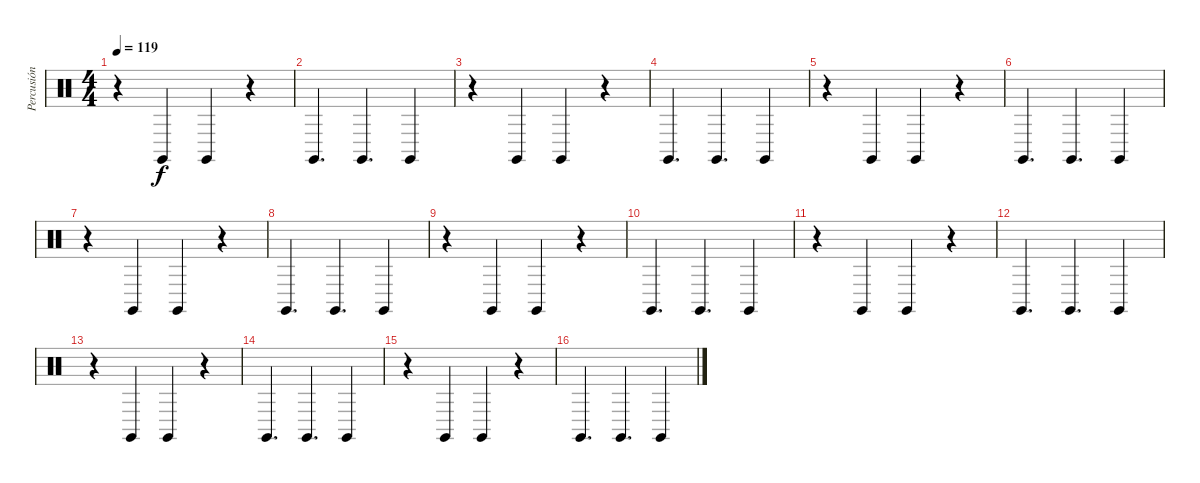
\track ("Percusión" "Percusión") {instrument percussion}
\staff {score}
\articulation defaults
\ts (4 4)
\tempo 119
\clef neutral
\ks c
r.4{dy f} "Claves (hit)".4 "Claves (hit)".4 r.4 |
"Claves (hit)".4{d} "Claves (hit)".4{d} "Claves (hit)".4 |
r.4 "Claves (hit)".4 "Claves (hit)".4 r.4 |
"Claves (hit)".4{d} "Claves (hit)".4{d} "Claves (hit)".4 |
r.4 "Claves (hit)".4 "Claves (hit)".4 r.4 |
"Claves (hit)".4{d} "Claves (hit)".4{d} "Claves (hit)".4 |
r.4 "Claves (hit)".4 "Claves (hit)".4 r.4 |
"Claves (hit)".4{d} "Claves (hit)".4{d} "Claves (hit)".4 |
r.4 "Claves (hit)".4 "Claves (hit)".4 r.4 |
"Claves (hit)".4{d} "Claves (hit)".4{d} "Claves (hit)".4 |
r.4 "Claves (hit)".4 "Claves (hit)".4 r.4 |
"Claves (hit)".4{d} "Claves (hit)".4{d} "Claves (hit)".4 |
r.4 "Claves (hit)".4 "Claves (hit)".4 r.4 |
"Claves (hit)".4{d} "Claves (hit)".4{d} "Claves (hit)".4 |
r.4 "Claves (hit)".4 "Claves (hit)".4 r.4 |
"Claves (hit)".4{d} "Claves (hit)".4{d} "Claves (hit)".4
